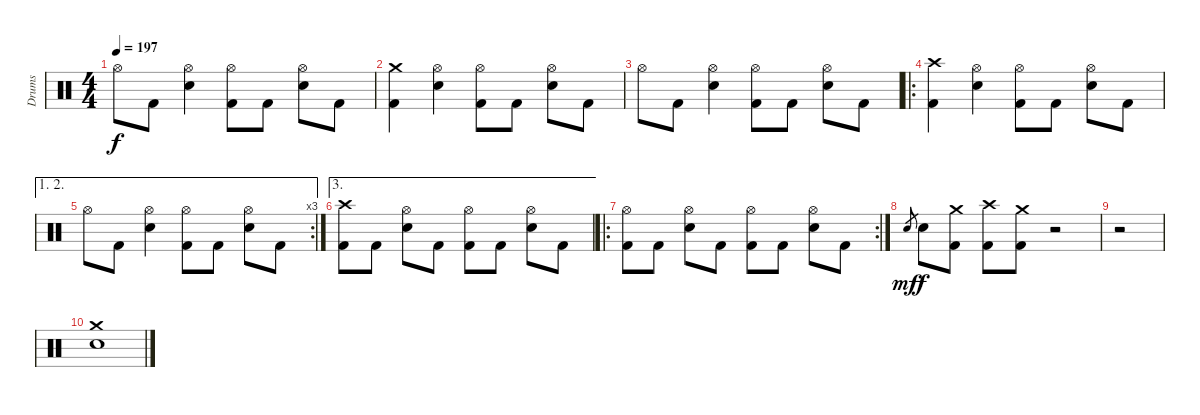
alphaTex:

\track ("Drums" "Drums") {instrument percussion}
\staff {score}
\articulation defaults
\ts (4 4)
\tempo 197
\clef neutral
\ks c "Hi-Hat (open)".8{dy f} "Kick (hit) 2".8
("Hi-Hat (open)" "Electric Snare (hit)").4 ("Hi-Hat (open)" "Kick (hit) 2").8 "Kick (hit) 2".8 ("Hi-Hat (open)" "Electric Snare (hit)").8 "Kick (hit) 2".8 |
("Crash medium (hit)" "Kick (hit) 2").4 ("Hi-Hat (open)" "Electric Snare (hit)").4 ("Hi-Hat (open)" "Kick (hit) 2").8 "Kick (hit) 2".8 ("Hi-Hat (open)" "Electric Snare (hit)").8 "Kick (hit) 2".8 |
"Hi-Hat (open)".8 "Kick (hit) 2".8 ("Hi-Hat (open)" "Electric Snare (hit)").4 ("Hi-Hat (open)" "Kick (hit) 2").8 "Kick (hit) 2".8 ("Hi-Hat (open)" "Electric Snare (hit)").8 "Kick (hit) 2".8 |
\ro
("Crash high (hit)" "Kick (hit) 2").4 ("Hi-Hat (open)" "Electric Snare (hit)").4 ("Hi-Hat (open)" "Kick (hit) 2").8 "Kick (hit) 2".8 ("Hi-Hat (open)" "Electric Snare (hit)").8 "Kick (hit) 2".8 |
\ae (1 2)
\rc 3 "Hi-Hat (open)".8 "Kick (hit) 2".8
("Hi-Hat (open)" "Electric Snare (hit)").4 ("Hi-Hat (open)" "Kick (hit) 2").8 "Kick (hit) 2".8 ("Hi-Hat (open)" "Electric Snare (hit)").8 "Kick (hit) 2".8 |
\ae 3
("Crash high (hit)" "Kick (hit) 2").8 "Kick (hit) 2".8 ("Hi-Hat (open)" "Electric Snare (hit)").8 "Kick (hit) 2".8 ("Hi-Hat (open)" "Kick (hit) 2").8 "Kick (hit) 2".8 ("Hi-Hat (open)" "Electric Snare (hit)").8 "Kick (hit) 2".8 |
\ro
\rc 2
("Hi-Hat (open)" "Kick (hit) 2").8 "Kick (hit) 2".8 ("Hi-Hat (open)" "Electric Snare (hit)").8 "Kick (hit) 2".8 ("Hi-Hat (open)" "Kick (hit) 2").8 "Kick (hit) 2".8 ("Hi-Hat (open)" "Electric Snare (hit)").8 "Kick (hit) 2".8 |
"Electric Snare (hit)".8{gr dy mf} "Electric Snare (hit)".8{dy f} ("Crash medium (hit)" "Kick (hit) 2").8 ("Crash high (hit)" "Kick (hit) 2").8 ("Crash medium (hit)" "Kick (hit) 2").8 r.2 |
r.2 |
("Crash medium (hit)" "Electric Snare (hit)").1
